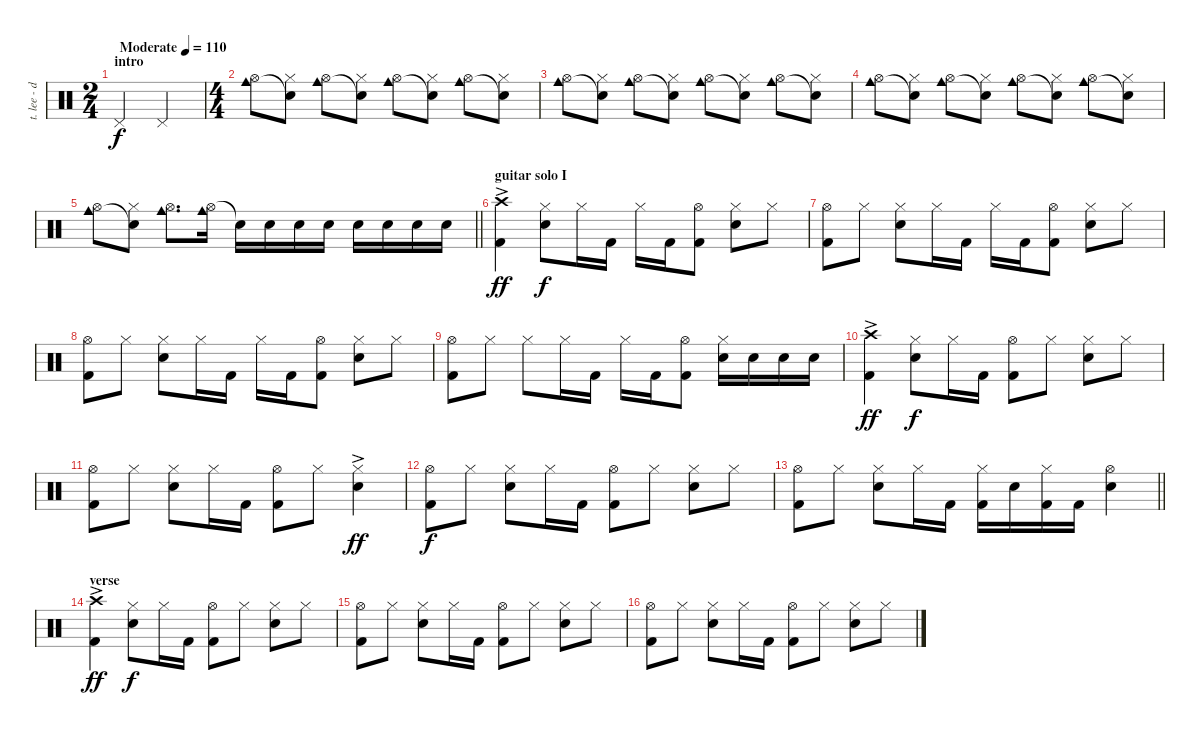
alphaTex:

\track ("t. lee - drums" "t. lee - d") {instrument percussion}
\staff {score}
\articulation defaults
\ts (2 4)
\section ("" "intro")
\tempo (110 "Moderate")
\clef neutral
\ks c "Pedal Hi-Hat (hit)".4{dy f} "Pedal Hi-Hat (hit)".4
|
\ts (4 4)
("Hi-Hat (open)" "Cowbell medium (hit)").8 ("Hi-Hat (closed)" "Snare (hit)"{t}).8 ("Hi-Hat (open)" "Cowbell medium (hit)").8 ("Hi-Hat (closed)" "Snare (hit)"{t}).8 ("Hi-Hat (open)" "Cowbell medium (hit)").8 ("Hi-Hat (closed)" "Snare (hit)"{t}).8 ("Hi-Hat (open)" "Cowbell medium (hit)").8 ("Hi-Hat (closed)" "Snare (hit)"{t}).8 |
("Hi-Hat (open)" "Cowbell medium (hit)").8 ("Hi-Hat (closed)" "Snare (hit)"{t}).8 ("Hi-Hat (open)" "Cowbell medium (hit)").8 ("Hi-Hat (closed)" "Snare (hit)"{t}).8 ("Hi-Hat (open)" "Cowbell medium (hit)").8 ("Hi-Hat (closed)" "Snare (hit)"{t}).8 ("Hi-Hat (open)" "Cowbell medium (hit)").8 ("Hi-Hat (closed)" "Snare (hit)"{t}).8 |
("Hi-Hat (open)" "Cowbell medium (hit)").8 ("Hi-Hat (closed)" "Snare (hit)"{t}).8 ("Hi-Hat (open)" "Cowbell medium (hit)").8 ("Hi-Hat (closed)" "Snare (hit)"{t}).8 ("Hi-Hat (open)" "Cowbell medium (hit)").8 ("Hi-Hat (closed)" "Snare (hit)"{t}).8 ("Hi-Hat (open)" "Cowbell medium (hit)").8 ("Hi-Hat (closed)" "Snare (hit)"{t}).8 |
\barLineRight lightlight
("Hi-Hat (open)" "Cowbell medium (hit)").8 ("Hi-Hat (closed)" "Snare (hit)"{t}).8 ("Hi-Hat (open)" "Cowbell medium (hit)").8{d} ("Hi-Hat (open)" "Cowbell medium (hit)").16 "Snare (hit)"{t}.16 "Snare (hit) 2".16 "Snare (hit) 2".16 "Snare (hit) 2".16 "Snare (hit) 2".16 "Snare (hit) 2".16 "Snare (hit) 2".16 "Snare (hit) 2".16 |
\section ("" "guitar solo I")
("Crash high (hit)"{ac} "Kick (hit) 2"{ac}).4{dy ff} ("Hi-Hat (closed)" "Snare (hit) 2").8{dy f} "Hi-Hat (closed)".16 "Kick (hit) 2".16 "Hi-Hat (closed)".16 "Kick (hit) 2".16 ("Hi-Hat (open)" "Kick (hit) 2").8 ("Hi-Hat (closed)" "Snare (hit) 2").8 "Hi-Hat (closed)".8 |
("Hi-Hat (open)" "Kick (hit) 2").8 "Hi-Hat (closed)".8 ("Hi-Hat (closed)" "Snare (hit) 2").8 "Hi-Hat (closed)".16 "Kick (hit) 2".16 "Hi-Hat (closed)".16 "Kick (hit) 2".16 ("Hi-Hat (open)" "Kick (hit) 2").8 ("Hi-Hat (closed)" "Snare (hit) 2").8 "Hi-Hat (closed)".8 |
("Hi-Hat (open)" "Kick (hit) 2").8 "Hi-Hat (closed)".8 ("Hi-Hat (closed)" "Snare (hit) 2").8 "Hi-Hat (closed)".16 "Kick (hit) 2".16 "Hi-Hat (closed)".16 "Kick (hit) 2".16 ("Hi-Hat (open)" "Kick (hit) 2").8 ("Hi-Hat (closed)" "Snare (hit) 2").8 "Hi-Hat (closed)".8 |
("Hi-Hat (open)" "Kick (hit) 2").8 "Hi-Hat (closed)".8 "Hi-Hat (closed)".8 "Hi-Hat (closed)".16 "Kick (hit) 2".16 "Hi-Hat (closed)".16 "Kick (hit) 2".16 ("Hi-Hat (open)" "Kick (hit) 2").8 ("Hi-Hat (closed)" "Snare (hit) 2").16 "Snare (hit) 2".16 "Snare (hit) 2".16 "Snare (hit) 2".16 |
("Crash high (hit)"{ac} "Kick (hit) 2"{ac}).4{dy ff} ("Hi-Hat (closed)" "Snare (hit) 2").8{dy f} "Hi-Hat (closed)".16 "Kick (hit) 2".16 ("Hi-Hat (open)" "Kick (hit) 2").8 "Hi-Hat (closed)".8 ("Hi-Hat (closed)" "Snare (hit) 2").8 "Hi-Hat (closed)".8 |
("Hi-Hat (open)" "Kick (hit) 2").8 "Hi-Hat (closed)".8 ("Hi-Hat (closed)" "Snare (hit) 2").8 "Hi-Hat (closed)".16 "Kick (hit) 2".16 ("Hi-Hat (open)" "Kick (hit) 2").8 "Hi-Hat (closed)".8 ("Hi-Hat (closed)"{ac} "Snare (hit) 2"{ac}).4{dy ff} |
("Hi-Hat (open)" "Kick (hit) 2").8{dy f} "Hi-Hat (closed)".8 ("Hi-Hat (closed)" "Snare (hit) 2").8 "Hi-Hat (closed)".16 "Kick (hit) 2".16 ("Hi-Hat (open)" "Kick (hit) 2").8 "Hi-Hat (closed)".8 ("Hi-Hat (closed)" "Snare (hit) 2").8 "Hi-Hat (closed)".8 |
\barLineRight lightlight
("Hi-Hat (open)" "Kick (hit) 2").8 "Hi-Hat (closed)".8 ("Hi-Hat (closed)" "Snare (hit) 2").8 "Hi-Hat (closed)".16 "Kick (hit) 2".16 ("Hi-Hat (closed)" "Kick (hit) 2").16 "Snare (hit) 2".16 ("Hi-Hat (closed)" "Kick (hit) 2").16 "Kick (hit) 2".16 ("Hi-Hat (open)" "Snare (hit) 2").4 |
\section ("" "verse")
("Crash high (hit)"{ac} "Kick (hit) 2"{ac}).4{dy ff} ("Hi-Hat (closed)" "Snare (hit) 2").8{dy f} "Hi-Hat (closed)".16 "Kick (hit) 2".16 ("Hi-Hat (open)" "Kick (hit) 2").8 "Hi-Hat (closed)".8 ("Hi-Hat (closed)" "Snare (hit) 2").8 "Hi-Hat (closed)".8 |
("Hi-Hat (open)" "Kick (hit) 2").8 "Hi-Hat (closed)".8 ("Hi-Hat (closed)" "Snare (hit) 2").8 "Hi-Hat (closed)".16 "Kick (hit) 2".16 ("Hi-Hat (open)" "Kick (hit) 2").8 "Hi-Hat (closed)".8 ("Hi-Hat (closed)" "Snare (hit) 2").8 "Hi-Hat (closed)".8 |
("Hi-Hat (open)" "Kick (hit) 2").8 "Hi-Hat (closed)".8 ("Hi-Hat (closed)" "Snare (hit) 2").8 "Hi-Hat (closed)".16 "Kick (hit) 2".16 ("Hi-Hat (open)" "Kick (hit) 2").8 "Hi-Hat (closed)".8 ("Hi-Hat (closed)" "Snare (hit) 2").8 "Hi-Hat (closed)".8
